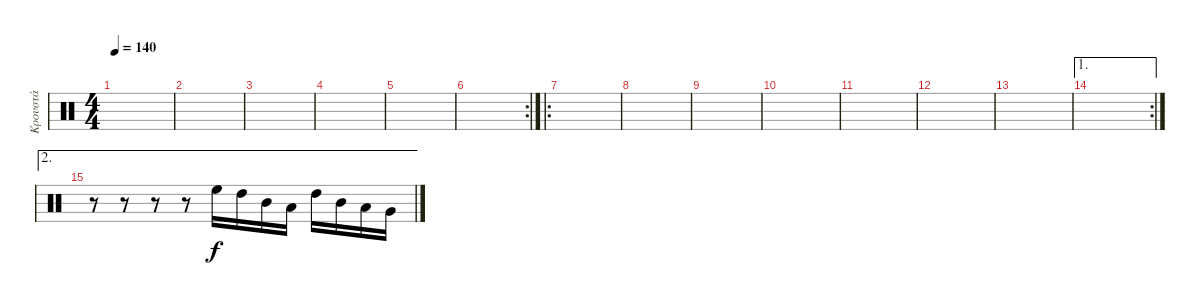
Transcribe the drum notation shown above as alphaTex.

\track ("Κρουστά" "Κρουστά") {instrument percussion}
\staff {score}
\articulation defaults
\ts (4 4)
\tempo 140
\clef neutral
\ks c
|
|
|
|
|
\rc 2
|
\ro
|
|
|
|
|
|
|
\ae 1
\rc 2
|
\ae 2
r.8 r.8 r.8 r.8 "High Floor Tom (hit)".16 "High Tom (hit)".16 "Mid Tom (hit)".16 "Low Tom (hit)".16 "High Tom (hit)".16 "Mid Tom (hit)".16 "Low Tom (hit)".16 "Very Low Tom (hit)".16
